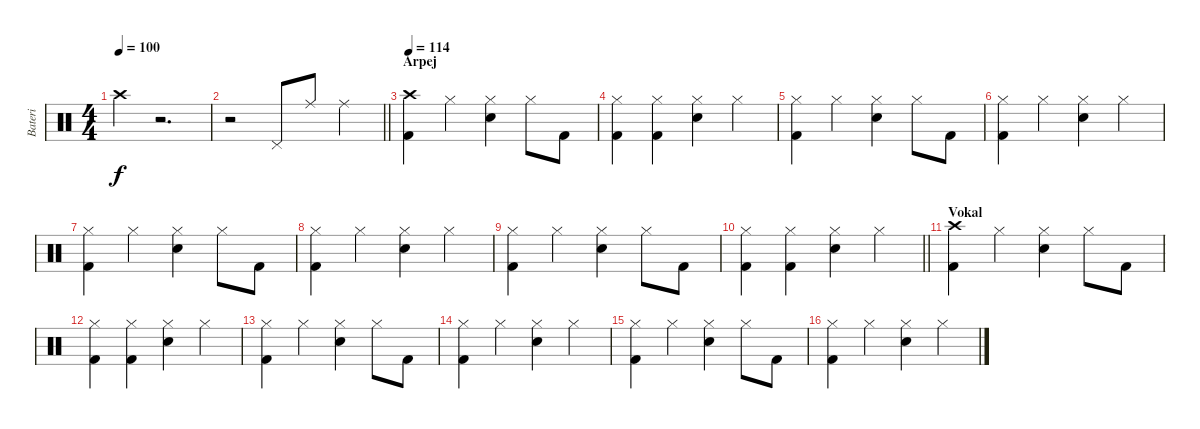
\track ("Bateri" "Bateri") {instrument percussion}
\staff {score}
\articulation defaults
\ts (4 4)
\tempo 100
\clef neutral
\ks c "Crash high (hit)".4{dy f}
r.2{d} |
\barLineRight lightlight
r.2 "Pedal Hi-Hat (hit)".8 "Ride (middle)".8 "Ride (middle)".4 |
\section ("" "Arpej")
\tempo 114
("Crash high (hit)" "Kick (hit) 2").4 "Hi-Hat (closed)".4 ("Hi-Hat (closed)" "Snare (hit) 2").4 "Hi-Hat (closed)".8 "Kick (hit) 2".8 |
("Hi-Hat (closed)" "Kick (hit) 2").4 ("Hi-Hat (closed)" "Kick (hit) 2").4 ("Hi-Hat (closed)" "Snare (hit) 2").4 "Hi-Hat (closed)".4 |
("Hi-Hat (closed)" "Kick (hit) 2").4 "Hi-Hat (closed)".4 ("Hi-Hat (closed)" "Snare (hit) 2").4 "Hi-Hat (closed)".8 "Kick (hit) 2".8 |
("Hi-Hat (closed)" "Kick (hit) 2").4 "Hi-Hat (closed)".4 ("Hi-Hat (closed)" "Snare (hit) 2").4 "Hi-Hat (closed)".4 |
("Hi-Hat (closed)" "Kick (hit) 2").4 "Hi-Hat (closed)".4 ("Hi-Hat (closed)" "Snare (hit) 2").4 "Hi-Hat (closed)".8 "Kick (hit) 2".8 |
("Hi-Hat (closed)" "Kick (hit) 2").4 "Hi-Hat (closed)".4 ("Hi-Hat (closed)" "Snare (hit) 2").4 "Hi-Hat (closed)".4 |
("Hi-Hat (closed)" "Kick (hit) 2").4 "Hi-Hat (closed)".4 ("Hi-Hat (closed)" "Snare (hit) 2").4 "Hi-Hat (closed)".8 "Kick (hit) 2".8 |
\barLineRight lightlight
("Hi-Hat (closed)" "Kick (hit) 2").4 ("Hi-Hat (closed)" "Kick (hit) 2").4 ("Hi-Hat (closed)" "Snare (hit) 2").4 "Hi-Hat (closed)".4 |
\section ("" "Vokal")
("Crash high (hit)" "Kick (hit) 2").4 "Hi-Hat (closed)".4 ("Hi-Hat (closed)" "Snare (hit) 2").4 "Hi-Hat (closed)".8 "Kick (hit) 2".8 |
("Hi-Hat (closed)" "Kick (hit) 2").4 ("Hi-Hat (closed)" "Kick (hit) 2").4 ("Hi-Hat (closed)" "Snare (hit) 2").4 "Hi-Hat (closed)".4 |
("Hi-Hat (closed)" "Kick (hit) 2").4 "Hi-Hat (closed)".4 ("Hi-Hat (closed)" "Snare (hit) 2").4 "Hi-Hat (closed)".8 "Kick (hit) 2".8 |
("Hi-Hat (closed)" "Kick (hit) 2").4 "Hi-Hat (closed)".4 ("Hi-Hat (closed)" "Snare (hit) 2").4 "Hi-Hat (closed)".4 |
("Hi-Hat (closed)" "Kick (hit) 2").4 "Hi-Hat (closed)".4 ("Hi-Hat (closed)" "Snare (hit) 2").4 "Hi-Hat (closed)".8 "Kick (hit) 2".8 |
("Hi-Hat (closed)" "Kick (hit) 2").4 "Hi-Hat (closed)".4 ("Hi-Hat (closed)" "Snare (hit) 2").4 "Hi-Hat (closed)".4
